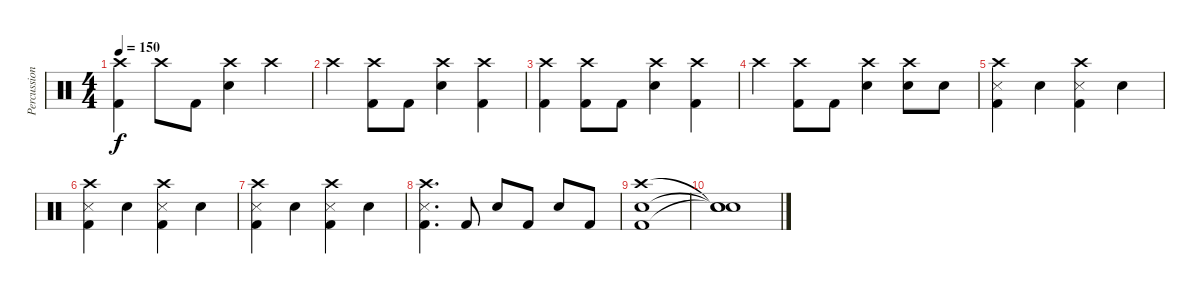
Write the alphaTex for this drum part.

\track ("Percussion" "Percussion") {instrument percussion}
\staff {score}
\articulation defaults
\ts (4 4)
\tempo 150
\clef neutral
\ks c
("Crash high (hit)" "Kick (hit) 2").4{dy f} "Crash high (hit)".8 "Kick (hit) 2".8 ("Crash high (hit)" "Snare (hit) 2").4 "Crash high (hit)".4 |
"Crash high (hit)".4 ("Crash high (hit)" "Kick (hit) 2").8 "Kick (hit) 2".8 ("Crash high (hit)" "Snare (hit) 2").4 ("Crash high (hit)" "Kick (hit) 2").4 |
("Crash high (hit)" "Kick (hit) 2").4 ("Crash high (hit)" "Kick (hit) 2").8 "Kick (hit) 2".8 ("Crash high (hit)" "Snare (hit) 2").4 ("Crash high (hit)" "Kick (hit) 2").4 |
"Crash high (hit)".4 ("Crash high (hit)" "Kick (hit) 2").8 "Kick (hit) 2".8 ("Crash high (hit)" "Snare (hit) 2").4 ("Crash high (hit)" "Snare (hit) 2").8 "Snare (hit) 2".8 |
("Crash high (hit)" "Snare (side stick) 3" "Kick (hit) 2").4 "Snare (hit) 2".4 ("Crash high (hit)" "Snare (side stick) 3" "Kick (hit) 2").4 "Snare (hit) 2".4 |
("Crash high (hit)" "Snare (side stick) 3" "Kick (hit) 2").4 "Snare (hit) 2".4 ("Crash high (hit)" "Snare (side stick) 3" "Kick (hit) 2").4 "Snare (hit) 2".4 |
("Crash high (hit)" "Snare (side stick) 3" "Kick (hit) 2").4 "Snare (hit) 2".4 ("Crash high (hit)" "Snare (side stick) 3" "Kick (hit) 2").4 "Snare (hit) 2".4 |
("Crash high (hit)" "Snare (side stick) 3" "Kick (hit) 2").4{d} "Kick (hit) 2".8 "Snare (hit) 2".8 "Kick (hit) 2".8 "Snare (hit) 2".8 "Kick (hit) 2".8 |
("Crash high (hit)" "Snare (hit) 2" "Kick (hit) 2").1 |
("Snare (hit)"{t} "Snare (hit)"{t} "Snare (hit)"{t}).1
